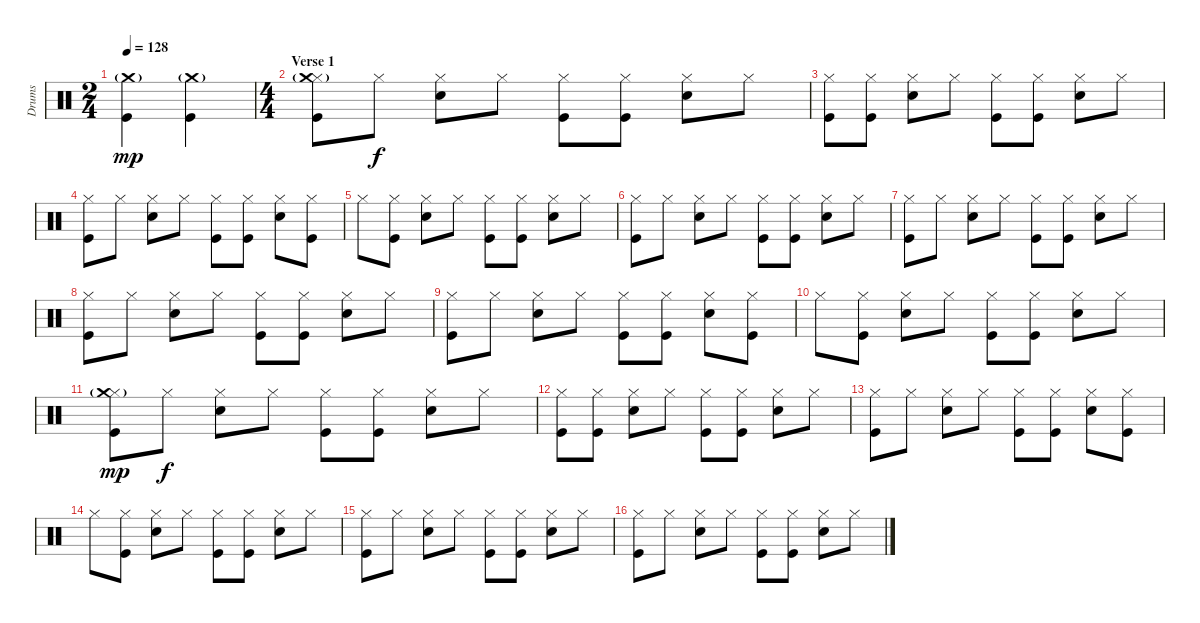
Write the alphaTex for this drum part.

\track ("Drums" "Drums") {instrument percussion}
\staff {score}
\articulation defaults
\ts (2 4)
\tempo 128
\clef neutral
\ks c
("Crash medium (hit)"{g} "Kick (hit)").4{dy mp} ("Crash medium (hit)"{g} "Kick (hit)").4 |
\ts (4 4)
\section ("" "Verse 1")
("Hi-Hat (closed)" "Crash medium (hit)"{g} "Kick (hit)").8 "Hi-Hat (closed)".8{dy f} ("Hi-Hat (closed)" "Snare (hit) 2").8 "Hi-Hat (closed)".8 ("Hi-Hat (closed)" "Kick (hit)").8 ("Hi-Hat (closed)" "Kick (hit)").8 ("Hi-Hat (closed)" "Snare (hit) 2").8 "Hi-Hat (closed)".8 |
("Hi-Hat (closed)" "Kick (hit)").8 ("Hi-Hat (closed)" "Kick (hit)").8 ("Hi-Hat (closed)" "Snare (hit) 2").8 "Hi-Hat (closed)".8 ("Hi-Hat (closed)" "Kick (hit)").8 ("Hi-Hat (closed)" "Kick (hit)").8 ("Hi-Hat (closed)" "Snare (hit) 2").8 "Hi-Hat (closed)".8 |
("Hi-Hat (closed)" "Kick (hit)").8 "Hi-Hat (closed)".8 ("Hi-Hat (closed)" "Snare (hit) 2").8 "Hi-Hat (closed)".8 ("Hi-Hat (closed)" "Kick (hit)").8 ("Hi-Hat (closed)" "Kick (hit)").8 ("Hi-Hat (closed)" "Snare (hit) 2").8 ("Hi-Hat (closed)" "Kick (hit)").8 |
"Hi-Hat (closed)".8 ("Hi-Hat (closed)" "Kick (hit)").8 ("Hi-Hat (closed)" "Snare (hit) 2").8 "Hi-Hat (closed)".8 ("Hi-Hat (closed)" "Kick (hit)").8 ("Hi-Hat (closed)" "Kick (hit)").8 ("Hi-Hat (closed)" "Snare (hit) 2").8 "Hi-Hat (closed)".8 |
("Hi-Hat (closed)" "Kick (hit)").8 "Hi-Hat (closed)".8 ("Hi-Hat (closed)" "Snare (hit) 2").8 "Hi-Hat (closed)".8 ("Hi-Hat (closed)" "Kick (hit)").8 ("Hi-Hat (closed)" "Kick (hit)").8 ("Hi-Hat (closed)" "Snare (hit) 2").8 "Hi-Hat (closed)".8 |
("Hi-Hat (closed)" "Kick (hit)").8 "Hi-Hat (closed)".8 ("Hi-Hat (closed)" "Snare (hit) 2").8 "Hi-Hat (closed)".8 ("Hi-Hat (closed)" "Kick (hit)").8 ("Hi-Hat (closed)" "Kick (hit)").8 ("Hi-Hat (closed)" "Snare (hit) 2").8 "Hi-Hat (closed)".8 |
("Hi-Hat (closed)" "Kick (hit)").8 "Hi-Hat (closed)".8 ("Hi-Hat (closed)" "Snare (hit) 2").8 "Hi-Hat (closed)".8 ("Hi-Hat (closed)" "Kick (hit)").8 ("Hi-Hat (closed)" "Kick (hit)").8 ("Hi-Hat (closed)" "Snare (hit) 2").8 "Hi-Hat (closed)".8 |
("Hi-Hat (closed)" "Kick (hit)").8 "Hi-Hat (closed)".8 ("Hi-Hat (closed)" "Snare (hit) 2").8 "Hi-Hat (closed)".8 ("Hi-Hat (closed)" "Kick (hit)").8 ("Hi-Hat (closed)" "Kick (hit)").8 ("Hi-Hat (closed)" "Snare (hit) 2").8 ("Hi-Hat (closed)" "Kick (hit)").8 |
"Hi-Hat (closed)".8 ("Hi-Hat (closed)" "Kick (hit)").8 ("Hi-Hat (closed)" "Snare (hit) 2").8 "Hi-Hat (closed)".8 ("Hi-Hat (closed)" "Kick (hit)").8 ("Hi-Hat (closed)" "Kick (hit)").8 ("Hi-Hat (closed)" "Snare (hit) 2").8 "Hi-Hat (closed)".8 |
("Hi-Hat (closed)" "Crash medium (hit)"{g} "Kick (hit)").8{dy mp} "Hi-Hat (closed)".8{dy f} ("Hi-Hat (closed)" "Snare (hit) 2").8 "Hi-Hat (closed)".8 ("Hi-Hat (closed)" "Kick (hit)").8 ("Hi-Hat (closed)" "Kick (hit)").8 ("Hi-Hat (closed)" "Snare (hit) 2").8 "Hi-Hat (closed)".8 |
("Hi-Hat (closed)" "Kick (hit)").8 ("Hi-Hat (closed)" "Kick (hit)").8 ("Hi-Hat (closed)" "Snare (hit) 2").8 "Hi-Hat (closed)".8 ("Hi-Hat (closed)" "Kick (hit)").8 ("Hi-Hat (closed)" "Kick (hit)").8 ("Hi-Hat (closed)" "Snare (hit) 2").8 "Hi-Hat (closed)".8 |
("Hi-Hat (closed)" "Kick (hit)").8 "Hi-Hat (closed)".8 ("Hi-Hat (closed)" "Snare (hit) 2").8 "Hi-Hat (closed)".8 ("Hi-Hat (closed)" "Kick (hit)").8 ("Hi-Hat (closed)" "Kick (hit)").8 ("Hi-Hat (closed)" "Snare (hit) 2").8 ("Hi-Hat (closed)" "Kick (hit)").8 |
"Hi-Hat (closed)".8 ("Hi-Hat (closed)" "Kick (hit)").8 ("Hi-Hat (closed)" "Snare (hit) 2").8 "Hi-Hat (closed)".8 ("Hi-Hat (closed)" "Kick (hit)").8 ("Hi-Hat (closed)" "Kick (hit)").8 ("Hi-Hat (closed)" "Snare (hit) 2").8 "Hi-Hat (closed)".8 |
("Hi-Hat (closed)" "Kick (hit)").8 "Hi-Hat (closed)".8 ("Hi-Hat (closed)" "Snare (hit) 2").8 "Hi-Hat (closed)".8 ("Hi-Hat (closed)" "Kick (hit)").8 ("Hi-Hat (closed)" "Kick (hit)").8 ("Hi-Hat (closed)" "Snare (hit) 2").8 "Hi-Hat (closed)".8 |
("Hi-Hat (closed)" "Kick (hit)").8 "Hi-Hat (closed)".8 ("Hi-Hat (closed)" "Snare (hit) 2").8 "Hi-Hat (closed)".8 ("Hi-Hat (closed)" "Kick (hit)").8 ("Hi-Hat (closed)" "Kick (hit)").8 ("Hi-Hat (closed)" "Snare (hit) 2").8 "Hi-Hat (closed)".8
